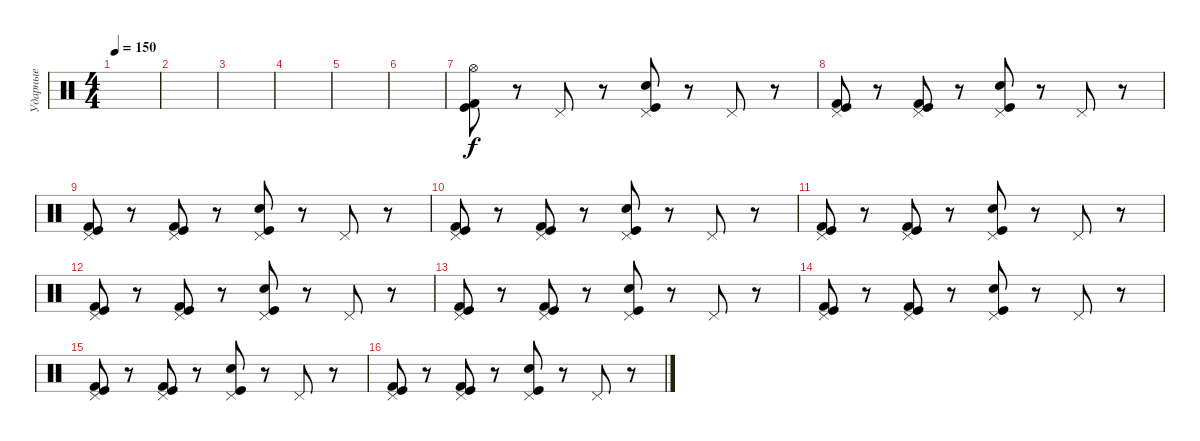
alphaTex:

\track ("Ударные" "Ударные") {instrument percussion}
\staff {score}
\articulation defaults
\ts (4 4)
\tempo 150
\clef neutral
\ks c
|
|
|
|
|
|
("Hi-Hat (open)" "Kick (hit)" "Kick (hit) 2").8 r.8 "Pedal Hi-Hat (hit)".8 r.8 ("Pedal Hi-Hat (hit)" "Electric Snare (hit)" "Kick (hit)").8 r.8 "Pedal Hi-Hat (hit)".8 r.8 |
("Pedal Hi-Hat (hit)" "Kick (hit)" "Kick (hit) 2").8 r.8 ("Pedal Hi-Hat (hit)" "Kick (hit)" "Kick (hit) 2").8 r.8 ("Pedal Hi-Hat (hit)" "Electric Snare (hit)" "Kick (hit)").8 r.8 "Pedal Hi-Hat (hit)".8 r.8 |
("Pedal Hi-Hat (hit)" "Kick (hit)" "Kick (hit) 2").8 r.8 ("Pedal Hi-Hat (hit)" "Kick (hit)" "Kick (hit) 2").8 r.8 ("Pedal Hi-Hat (hit)" "Electric Snare (hit)" "Kick (hit)").8 r.8 "Pedal Hi-Hat (hit)".8 r.8 |
("Pedal Hi-Hat (hit)" "Kick (hit)" "Kick (hit) 2").8 r.8 ("Pedal Hi-Hat (hit)" "Kick (hit)" "Kick (hit) 2").8 r.8 ("Pedal Hi-Hat (hit)" "Electric Snare (hit)" "Kick (hit)").8 r.8 "Pedal Hi-Hat (hit)".8 r.8 |
("Pedal Hi-Hat (hit)" "Kick (hit)" "Kick (hit) 2").8 r.8 ("Pedal Hi-Hat (hit)" "Kick (hit)" "Kick (hit) 2").8 r.8 ("Pedal Hi-Hat (hit)" "Electric Snare (hit)" "Kick (hit)").8 r.8 "Pedal Hi-Hat (hit)".8 r.8 |
("Pedal Hi-Hat (hit)" "Kick (hit)" "Kick (hit) 2").8 r.8 ("Pedal Hi-Hat (hit)" "Kick (hit)" "Kick (hit) 2").8 r.8 ("Pedal Hi-Hat (hit)" "Electric Snare (hit)" "Kick (hit)").8 r.8 "Pedal Hi-Hat (hit)".8 r.8 |
("Pedal Hi-Hat (hit)" "Kick (hit)" "Kick (hit) 2").8 r.8 ("Pedal Hi-Hat (hit)" "Kick (hit)" "Kick (hit) 2").8 r.8 ("Pedal Hi-Hat (hit)" "Electric Snare (hit)" "Kick (hit)").8 r.8 "Pedal Hi-Hat (hit)".8 r.8 |
("Pedal Hi-Hat (hit)" "Kick (hit)" "Kick (hit) 2").8 r.8 ("Pedal Hi-Hat (hit)" "Kick (hit)" "Kick (hit) 2").8 r.8 ("Pedal Hi-Hat (hit)" "Electric Snare (hit)" "Kick (hit)").8 r.8 "Pedal Hi-Hat (hit)".8 r.8 |
("Pedal Hi-Hat (hit)" "Kick (hit)" "Kick (hit) 2").8 r.8 ("Pedal Hi-Hat (hit)" "Kick (hit)" "Kick (hit) 2").8 r.8 ("Pedal Hi-Hat (hit)" "Electric Snare (hit)" "Kick (hit)").8 r.8 "Pedal Hi-Hat (hit)".8 r.8 |
("Pedal Hi-Hat (hit)" "Kick (hit)" "Kick (hit) 2").8 r.8 ("Pedal Hi-Hat (hit)" "Kick (hit)" "Kick (hit) 2").8 r.8 ("Pedal Hi-Hat (hit)" "Electric Snare (hit)" "Kick (hit)").8 r.8 "Pedal Hi-Hat (hit)".8 r.8
